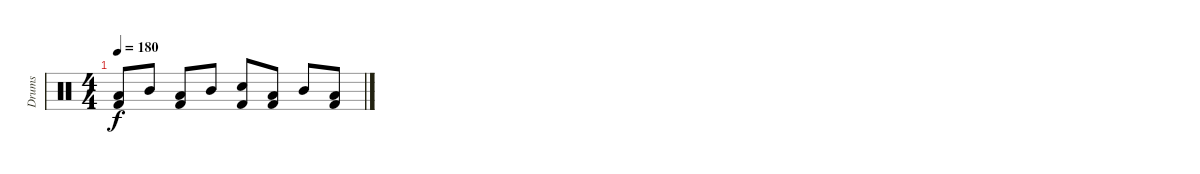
\track ("Drums" "Drums") {instrument percussion}
\staff {score}
\articulation defaults
\ts (4 4)
\tempo 180
\clef neutral
\ks c
("Low Tom (hit)" "Kick (hit) 2").8{dy f} "Mid Tom (hit)".8 ("Low Tom (hit)" "Kick (hit) 2").8 "Mid Tom (hit)".8 ("Snare (hit) 2" "Kick (hit) 2").8 ("Low Tom (hit)" "Kick (hit) 2").8 "Mid Tom (hit)".8 ("Low Tom (hit)" "Kick (hit) 2").8
